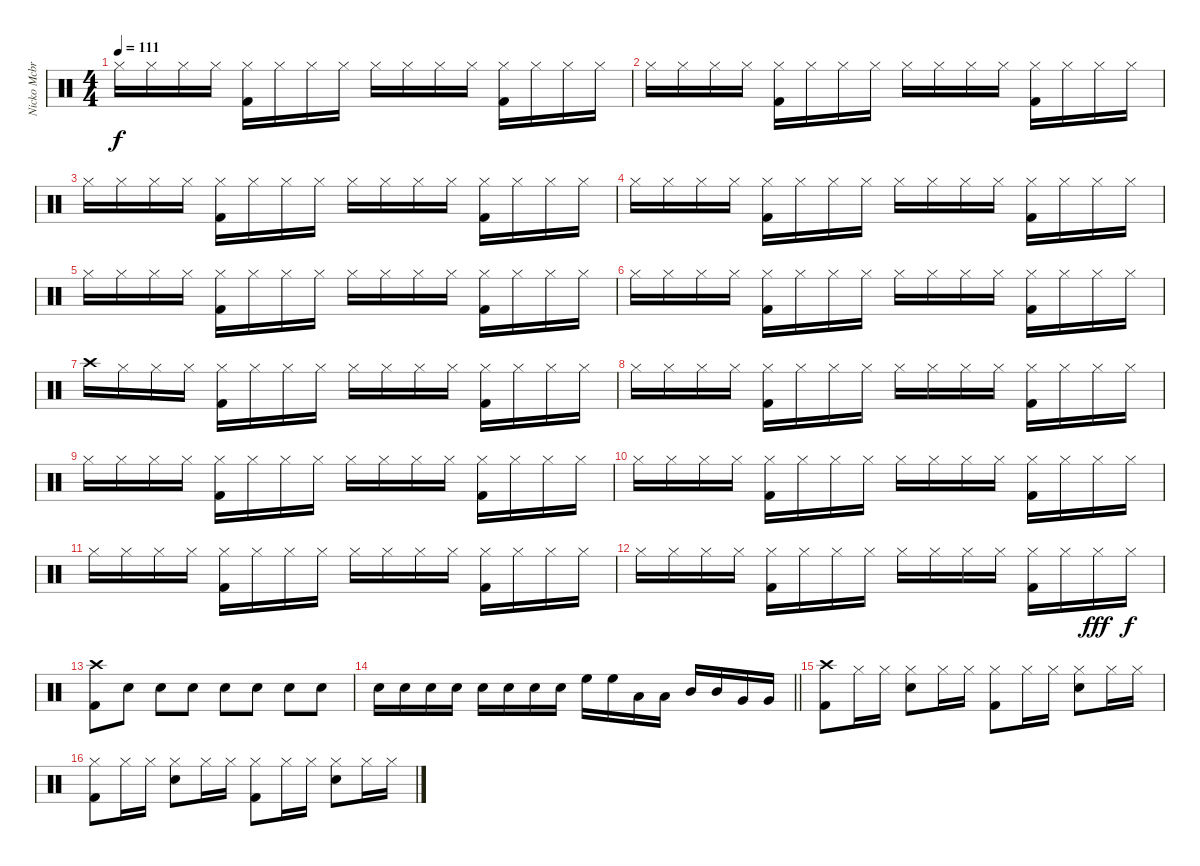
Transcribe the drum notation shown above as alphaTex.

\track ("Nicko Mcbrain" "Nicko Mcbr") {instrument percussion}
\staff {score}
\articulation defaults
\ts (4 4)
\tempo 111
\clef neutral
\ks c "Hi-Hat (closed)".16{dy f} "Hi-Hat (closed)".16 "Hi-Hat (closed)".16 "Hi-Hat (closed)".16
("Hi-Hat (closed)" "Kick (hit) 2").16 "Hi-Hat (closed)".16 "Hi-Hat (closed)".16 "Hi-Hat (closed)".16 "Hi-Hat (closed)".16 "Hi-Hat (closed)".16 "Hi-Hat (closed)".16 "Hi-Hat (closed)".16 ("Hi-Hat (closed)" "Kick (hit) 2").16 "Hi-Hat (closed)".16 "Hi-Hat (closed)".16 "Hi-Hat (closed)".16 |
"Hi-Hat (closed)".16 "Hi-Hat (closed)".16 "Hi-Hat (closed)".16 "Hi-Hat (closed)".16 ("Hi-Hat (closed)" "Kick (hit) 2").16 "Hi-Hat (closed)".16 "Hi-Hat (closed)".16 "Hi-Hat (closed)".16 "Hi-Hat (closed)".16 "Hi-Hat (closed)".16 "Hi-Hat (closed)".16 "Hi-Hat (closed)".16 ("Hi-Hat (closed)" "Kick (hit) 2").16 "Hi-Hat (closed)".16 "Hi-Hat (closed)".16 "Hi-Hat (closed)".16 |
"Hi-Hat (closed)".16 "Hi-Hat (closed)".16 "Hi-Hat (closed)".16 "Hi-Hat (closed)".16 ("Hi-Hat (closed)" "Kick (hit) 2").16 "Hi-Hat (closed)".16 "Hi-Hat (closed)".16 "Hi-Hat (closed)".16 "Hi-Hat (closed)".16 "Hi-Hat (closed)".16 "Hi-Hat (closed)".16 "Hi-Hat (closed)".16 ("Hi-Hat (closed)" "Kick (hit) 2").16 "Hi-Hat (closed)".16 "Hi-Hat (closed)".16 "Hi-Hat (closed)".16 |
"Hi-Hat (closed)".16 "Hi-Hat (closed)".16 "Hi-Hat (closed)".16 "Hi-Hat (closed)".16 ("Hi-Hat (closed)" "Kick (hit) 2").16 "Hi-Hat (closed)".16 "Hi-Hat (closed)".16 "Hi-Hat (closed)".16 "Hi-Hat (closed)".16 "Hi-Hat (closed)".16 "Hi-Hat (closed)".16 "Hi-Hat (closed)".16 ("Hi-Hat (closed)" "Kick (hit) 2").16 "Hi-Hat (closed)".16 "Hi-Hat (closed)".16 "Hi-Hat (closed)".16 |
"Hi-Hat (closed)".16 "Hi-Hat (closed)".16 "Hi-Hat (closed)".16 "Hi-Hat (closed)".16 ("Hi-Hat (closed)" "Kick (hit) 2").16 "Hi-Hat (closed)".16 "Hi-Hat (closed)".16 "Hi-Hat (closed)".16 "Hi-Hat (closed)".16 "Hi-Hat (closed)".16 "Hi-Hat (closed)".16 "Hi-Hat (closed)".16 ("Hi-Hat (closed)" "Kick (hit) 2").16 "Hi-Hat (closed)".16 "Hi-Hat (closed)".16 "Hi-Hat (closed)".16 |
"Hi-Hat (closed)".16 "Hi-Hat (closed)".16 "Hi-Hat (closed)".16 "Hi-Hat (closed)".16 ("Hi-Hat (closed)" "Kick (hit) 2").16 "Hi-Hat (closed)".16 "Hi-Hat (closed)".16 "Hi-Hat (closed)".16 "Hi-Hat (closed)".16 "Hi-Hat (closed)".16 "Hi-Hat (closed)".16 "Hi-Hat (closed)".16 ("Hi-Hat (closed)" "Kick (hit) 2").16 "Hi-Hat (closed)".16 "Hi-Hat (closed)".16 "Hi-Hat (closed)".16 |
"Crash high (hit)".16 "Hi-Hat (closed)".16 "Hi-Hat (closed)".16 "Hi-Hat (closed)".16 ("Hi-Hat (closed)" "Kick (hit) 2").16 "Hi-Hat (closed)".16 "Hi-Hat (closed)".16 "Hi-Hat (closed)".16 "Hi-Hat (closed)".16 "Hi-Hat (closed)".16 "Hi-Hat (closed)".16 "Hi-Hat (closed)".16 ("Hi-Hat (closed)" "Kick (hit) 2").16 "Hi-Hat (closed)".16 "Hi-Hat (closed)".16 "Hi-Hat (closed)".16 |
"Hi-Hat (closed)".16 "Hi-Hat (closed)".16 "Hi-Hat (closed)".16 "Hi-Hat (closed)".16 ("Hi-Hat (closed)" "Kick (hit) 2").16 "Hi-Hat (closed)".16 "Hi-Hat (closed)".16 "Hi-Hat (closed)".16 "Hi-Hat (closed)".16 "Hi-Hat (closed)".16 "Hi-Hat (closed)".16 "Hi-Hat (closed)".16 ("Hi-Hat (closed)" "Kick (hit) 2").16 "Hi-Hat (closed)".16 "Hi-Hat (closed)".16 "Hi-Hat (closed)".16 |
"Hi-Hat (closed)".16 "Hi-Hat (closed)".16 "Hi-Hat (closed)".16 "Hi-Hat (closed)".16 ("Hi-Hat (closed)" "Kick (hit) 2").16 "Hi-Hat (closed)".16 "Hi-Hat (closed)".16 "Hi-Hat (closed)".16 "Hi-Hat (closed)".16 "Hi-Hat (closed)".16 "Hi-Hat (closed)".16 "Hi-Hat (closed)".16 ("Hi-Hat (closed)" "Kick (hit) 2").16 "Hi-Hat (closed)".16 "Hi-Hat (closed)".16 "Hi-Hat (closed)".16 |
"Hi-Hat (closed)".16 "Hi-Hat (closed)".16 "Hi-Hat (closed)".16 "Hi-Hat (closed)".16 ("Hi-Hat (closed)" "Kick (hit) 2").16 "Hi-Hat (closed)".16 "Hi-Hat (closed)".16 "Hi-Hat (closed)".16 "Hi-Hat (closed)".16 "Hi-Hat (closed)".16 "Hi-Hat (closed)".16 "Hi-Hat (closed)".16 ("Hi-Hat (closed)" "Kick (hit) 2").16 "Hi-Hat (closed)".16 "Hi-Hat (closed)".16 "Hi-Hat (closed)".16 |
"Hi-Hat (closed)".16 "Hi-Hat (closed)".16 "Hi-Hat (closed)".16 "Hi-Hat (closed)".16 ("Hi-Hat (closed)" "Kick (hit) 2").16 "Hi-Hat (closed)".16 "Hi-Hat (closed)".16 "Hi-Hat (closed)".16 "Hi-Hat (closed)".16 "Hi-Hat (closed)".16 "Hi-Hat (closed)".16 "Hi-Hat (closed)".16 ("Hi-Hat (closed)" "Kick (hit) 2").16 "Hi-Hat (closed)".16 "Hi-Hat (closed)".16 "Hi-Hat (closed)".16 |
"Hi-Hat (closed)".16 "Hi-Hat (closed)".16 "Hi-Hat (closed)".16 "Hi-Hat (closed)".16 ("Hi-Hat (closed)" "Kick (hit) 2").16 "Hi-Hat (closed)".16 "Hi-Hat (closed)".16 "Hi-Hat (closed)".16 "Hi-Hat (closed)".16 "Hi-Hat (closed)".16 "Hi-Hat (closed)".16 "Hi-Hat (closed)".16 ("Hi-Hat (closed)" "Kick (hit) 2").16 "Hi-Hat (closed)".16 "Hi-Hat (closed)".16{dy fff} "Hi-Hat (closed)".16{dy f} |
("Crash high (hit)" "Kick (hit) 2").8 "Snare (hit) 2".8 "Snare (hit) 2".8 "Snare (hit) 2".8 "Snare (hit) 2".8 "Snare (hit) 2".8 "Snare (hit) 2".8 "Snare (hit) 2".8 |
\barLineRight lightlight "Snare (hit) 2".16 "Snare (hit) 2".16 "Snare (hit) 2".16 "Snare (hit) 2".16 "Snare (hit) 2".16 "Snare (hit) 2".16 "Snare (hit) 2".16 "Snare (hit) 2".16 "High Floor Tom (hit)".16 "High Floor Tom (hit)".16 "Low Tom (hit)".16 "Low Tom (hit)".16 "Mid Tom (hit)".16 "Mid Tom (hit)".16 "Very Low Tom (hit)".16 "Very Low Tom (hit)".16
|
("Crash high (hit)" "Kick (hit) 2").8 "Hi-Hat (closed)".16 "Hi-Hat (closed)".16 ("Hi-Hat (closed)" "Snare (hit) 2").8 "Hi-Hat (closed)".16 "Hi-Hat (closed)".16 ("Hi-Hat (closed)" "Kick (hit) 2").8 "Hi-Hat (closed)".16 "Hi-Hat (closed)".16 ("Hi-Hat (closed)" "Snare (hit) 2").8 "Hi-Hat (closed)".16 "Hi-Hat (closed)".16 |
("Hi-Hat (closed)" "Kick (hit) 2").8 "Hi-Hat (closed)".16 "Hi-Hat (closed)".16 ("Hi-Hat (closed)" "Snare (hit) 2").8 "Hi-Hat (closed)".16 "Hi-Hat (closed)".16 ("Hi-Hat (closed)" "Kick (hit) 2").8 "Hi-Hat (closed)".16 "Hi-Hat (closed)".16 ("Hi-Hat (closed)" "Snare (hit) 2").8 "Hi-Hat (closed)".16 "Hi-Hat (closed)".16
